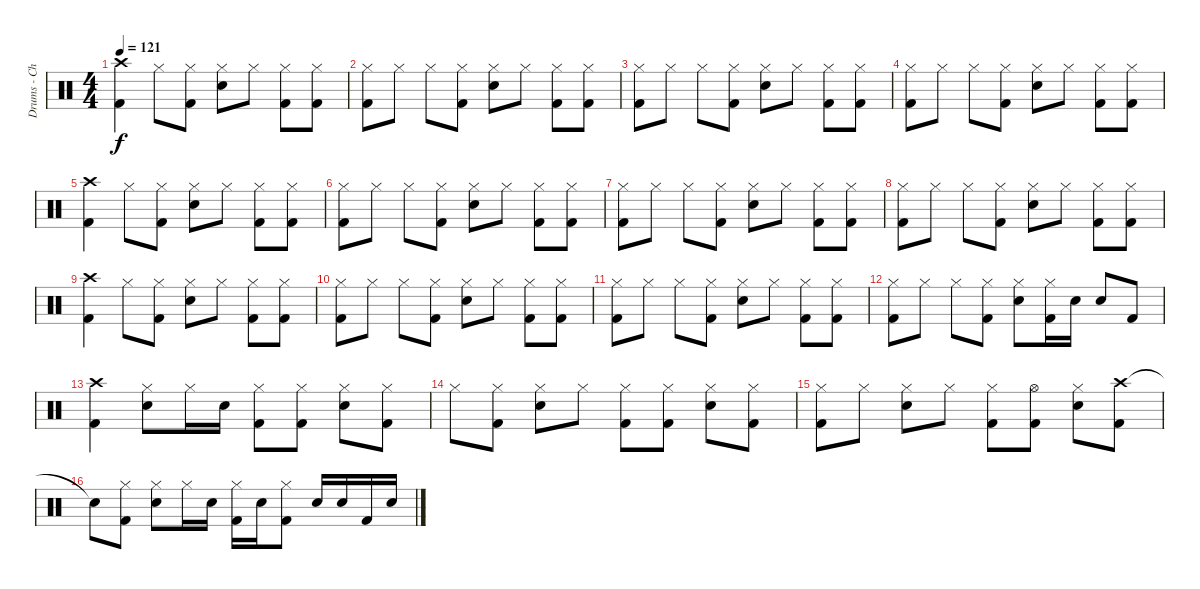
\track ("Drums - Chad" "Drums - Ch") {instrument percussion}
\staff {score}
\articulation defaults
\ts (4 4)
\tempo 121
\clef neutral
\ks c
("Crash high (hit)" "Kick (hit) 2").4{dy f} "Hi-Hat (closed)".8 ("Hi-Hat (closed)" "Kick (hit) 2").8 ("Hi-Hat (closed)" "Electric Snare (hit)").8 "Hi-Hat (closed)".8 ("Hi-Hat (closed)" "Kick (hit) 2").8 ("Hi-Hat (closed)" "Kick (hit) 2").8 |
("Hi-Hat (closed)" "Kick (hit) 2").8 "Hi-Hat (closed)".8 "Hi-Hat (closed)".8 ("Hi-Hat (closed)" "Kick (hit) 2").8 ("Hi-Hat (closed)" "Electric Snare (hit)").8 "Hi-Hat (closed)".8 ("Hi-Hat (closed)" "Kick (hit) 2").8 ("Hi-Hat (closed)" "Kick (hit) 2").8 |
("Hi-Hat (closed)" "Kick (hit) 2").8 "Hi-Hat (closed)".8 "Hi-Hat (closed)".8 ("Hi-Hat (closed)" "Kick (hit) 2").8 ("Hi-Hat (closed)" "Electric Snare (hit)").8 "Hi-Hat (closed)".8 ("Hi-Hat (closed)" "Kick (hit) 2").8 ("Hi-Hat (closed)" "Kick (hit) 2").8 |
("Hi-Hat (closed)" "Kick (hit) 2").8 "Hi-Hat (closed)".8 "Hi-Hat (closed)".8 ("Hi-Hat (closed)" "Kick (hit) 2").8 ("Hi-Hat (closed)" "Electric Snare (hit)").8 "Hi-Hat (closed)".8 ("Hi-Hat (closed)" "Kick (hit) 2").8 ("Hi-Hat (closed)" "Kick (hit) 2").8 |
("Crash high (hit)" "Kick (hit) 2").4 "Hi-Hat (closed)".8 ("Hi-Hat (closed)" "Kick (hit) 2").8 ("Hi-Hat (closed)" "Electric Snare (hit)").8 "Hi-Hat (closed)".8 ("Hi-Hat (closed)" "Kick (hit) 2").8 ("Hi-Hat (closed)" "Kick (hit) 2").8 |
("Hi-Hat (closed)" "Kick (hit) 2").8 "Hi-Hat (closed)".8 "Hi-Hat (closed)".8 ("Hi-Hat (closed)" "Kick (hit) 2").8 ("Hi-Hat (closed)" "Electric Snare (hit)").8 "Hi-Hat (closed)".8 ("Hi-Hat (closed)" "Kick (hit) 2").8 ("Hi-Hat (closed)" "Kick (hit) 2").8 |
("Hi-Hat (closed)" "Kick (hit) 2").8 "Hi-Hat (closed)".8 "Hi-Hat (closed)".8 ("Hi-Hat (closed)" "Kick (hit) 2").8 ("Hi-Hat (closed)" "Electric Snare (hit)").8 "Hi-Hat (closed)".8 ("Hi-Hat (closed)" "Kick (hit) 2").8 ("Hi-Hat (closed)" "Kick (hit) 2").8 |
("Hi-Hat (closed)" "Kick (hit) 2").8 "Hi-Hat (closed)".8 "Hi-Hat (closed)".8 ("Hi-Hat (closed)" "Kick (hit) 2").8 ("Hi-Hat (closed)" "Electric Snare (hit)").8 "Hi-Hat (closed)".8 ("Hi-Hat (closed)" "Kick (hit) 2").8 ("Hi-Hat (closed)" "Kick (hit) 2").8 |
("Crash high (hit)" "Kick (hit) 2").4 "Hi-Hat (closed)".8 ("Hi-Hat (closed)" "Kick (hit) 2").8 ("Hi-Hat (closed)" "Electric Snare (hit)").8 "Hi-Hat (closed)".8 ("Hi-Hat (closed)" "Kick (hit) 2").8 ("Hi-Hat (closed)" "Kick (hit) 2").8 |
("Hi-Hat (closed)" "Kick (hit) 2").8 "Hi-Hat (closed)".8 "Hi-Hat (closed)".8 ("Hi-Hat (closed)" "Kick (hit) 2").8 ("Hi-Hat (closed)" "Electric Snare (hit)").8 "Hi-Hat (closed)".8 ("Hi-Hat (closed)" "Kick (hit) 2").8 ("Hi-Hat (closed)" "Kick (hit) 2").8 |
("Hi-Hat (closed)" "Kick (hit) 2").8 "Hi-Hat (closed)".8 "Hi-Hat (closed)".8 ("Hi-Hat (closed)" "Kick (hit) 2").8 ("Hi-Hat (closed)" "Electric Snare (hit)").8 "Hi-Hat (closed)".8 ("Hi-Hat (closed)" "Kick (hit) 2").8 ("Hi-Hat (closed)" "Kick (hit) 2").8 |
("Hi-Hat (closed)" "Kick (hit) 2").8 "Hi-Hat (closed)".8 "Hi-Hat (closed)".8 ("Hi-Hat (closed)" "Kick (hit) 2").8 ("Hi-Hat (closed)" "Electric Snare (hit)").8 ("Hi-Hat (closed)" "Kick (hit) 2").16 "Electric Snare (hit)".16 "Electric Snare (hit)".8 "Kick (hit) 2".8 |
("Crash high (hit)" "Kick (hit) 2").4 ("Hi-Hat (closed)" "Electric Snare (hit)").8 "Hi-Hat (closed)".16 "Electric Snare (hit)".16 ("Hi-Hat (closed)" "Kick (hit) 2").8 ("Hi-Hat (closed)" "Kick (hit) 2").8 ("Hi-Hat (closed)" "Electric Snare (hit)").8 ("Hi-Hat (closed)" "Kick (hit) 2").8 |
"Hi-Hat (closed)".8 ("Hi-Hat (closed)" "Kick (hit) 2").8 ("Hi-Hat (closed)" "Electric Snare (hit)").8 "Hi-Hat (closed)".8 ("Hi-Hat (closed)" "Kick (hit) 2").8 ("Hi-Hat (closed)" "Kick (hit) 2").8 ("Hi-Hat (closed)" "Electric Snare (hit)").8 ("Hi-Hat (closed)" "Kick (hit) 2").8 |
("Hi-Hat (closed)" "Kick (hit) 2").8 "Hi-Hat (closed)".8 ("Hi-Hat (closed)" "Electric Snare (hit)").8 "Hi-Hat (closed)".8 ("Hi-Hat (closed)" "Kick (hit) 2").8 ("Hi-Hat (open)" "Kick (hit) 2").8 ("Hi-Hat (closed)" "Electric Snare (hit)").8 ("Crash high (hit)" "Kick (hit) 2").8 |
"Snare (hit)"{t}.8 ("Hi-Hat (closed)" "Kick (hit) 2").8 ("Hi-Hat (closed)" "Electric Snare (hit)").8 "Hi-Hat (closed)".16 "Electric Snare (hit)".16 ("Hi-Hat (closed)" "Kick (hit) 2").16 "Electric Snare (hit)".16 ("Hi-Hat (closed)" "Kick (hit) 2").8 "Electric Snare (hit)".16 "Electric Snare (hit)".16 "Kick (hit) 2".16 "Electric Snare (hit)".16
